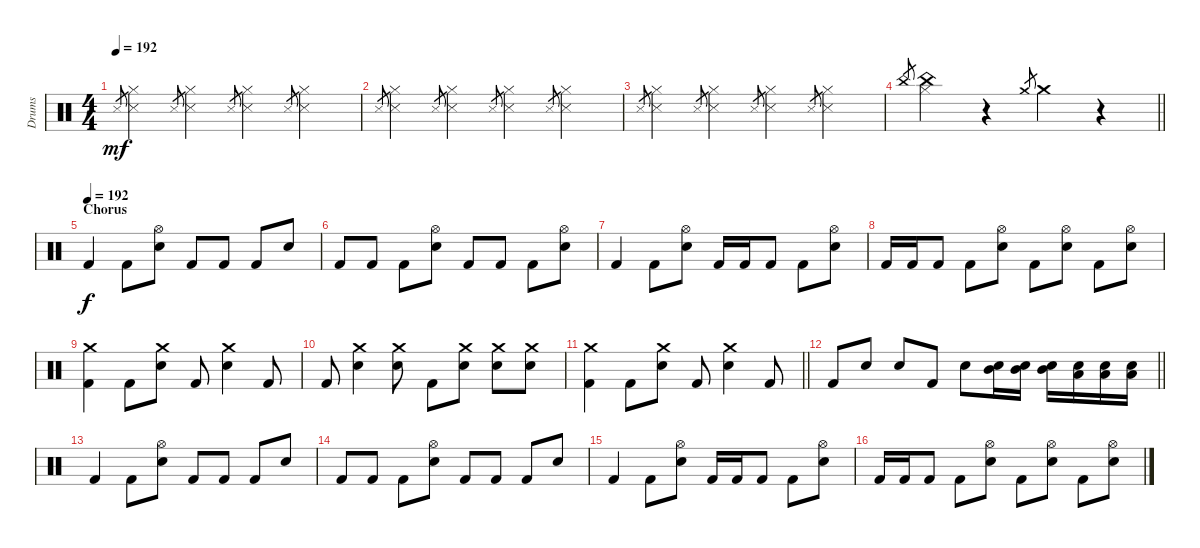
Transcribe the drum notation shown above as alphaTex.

\track ("Drums" "Drums") {instrument percussion}
\staff {score}
\articulation defaults
\ts (4 4)
\tempo 192
\clef neutral
\ks c "Snare (side stick) 3".8{gr dy mf}
("Snare (side stick) 3" "Hi-Hat (closed)").4 "Snare (side stick) 3".8{gr} ("Snare (side stick) 3" "Hi-Hat (closed)").4 "Snare (side stick) 3".8{gr} ("Snare (side stick) 3" "Hi-Hat (closed)").4 "Snare (side stick) 3".8{gr} ("Snare (side stick) 3" "Hi-Hat (closed)").4 |
"Snare (side stick) 3".8{gr} ("Snare (side stick) 3" "Hi-Hat (closed)").4 "Snare (side stick) 3".8{gr} ("Snare (side stick) 3" "Hi-Hat (closed)").4 "Snare (side stick) 3".8{gr} ("Snare (side stick) 3" "Hi-Hat (closed)").4 "Snare (side stick) 3".8{gr} ("Snare (side stick) 3" "Hi-Hat (closed)").4 |
"Snare (side stick) 3".8{gr} ("Snare (side stick) 3" "Hi-Hat (closed)").4 "Snare (side stick) 3".8{gr} ("Snare (side stick) 3" "Hi-Hat (closed)").4 "Snare (side stick) 3".8{gr} ("Snare (side stick) 3" "Hi-Hat (closed)").4 "Snare (side stick) 3".8{gr} ("Snare (side stick) 3" "Hi-Hat (closed)").4 |
\barLineRight lightlight "China (hit)".8{gr}
("China (hit)" "Hi-Hat (closed)").4 r.4 "Crash medium (hit)".8{gr} "Crash medium (hit)".4 r.4 |
\section ("" "Chorus")
\tempo (192)
"Kick (hit) 2".4{dy f} "Kick (hit) 2".8 ("Electric Snare (hit)" "Hi-Hat (open)").8 "Kick (hit) 2".8 "Kick (hit) 2".8 "Kick (hit) 2".8 "Electric Snare (hit)".8 |
"Kick (hit) 2".8 "Kick (hit) 2".8 "Kick (hit) 2".8 ("Electric Snare (hit)" "Hi-Hat (open)").8 "Kick (hit) 2".8 "Kick (hit) 2".8 "Kick (hit) 2".8 ("Electric Snare (hit)" "Hi-Hat (open)").8 |
"Kick (hit) 2".4 "Kick (hit) 2".8 ("Electric Snare (hit)" "Hi-Hat (open)").8 "Kick (hit) 2".16 "Kick (hit) 2".16 "Kick (hit) 2".8 "Kick (hit) 2".8 ("Electric Snare (hit)" "Hi-Hat (open)").8 |
"Kick (hit) 2".16 "Kick (hit) 2".16 "Kick (hit) 2".8 "Kick (hit) 2".8 ("Hi-Hat (open)" "Electric Snare (hit)").8 "Kick (hit) 2".8 ("Hi-Hat (open)" "Electric Snare (hit)").8 "Kick (hit) 2".8 ("Hi-Hat (open)" "Electric Snare (hit)").8 |
("Kick (hit) 2" "Crash medium (hit)").4 "Kick (hit) 2".8 ("Electric Snare (hit)" "Crash medium (hit)").8 "Kick (hit) 2".8 ("Electric Snare (hit)" "Crash medium (hit)").4 "Kick (hit) 2".8 |
"Kick (hit) 2".8 ("Electric Snare (hit)" "Crash medium (hit)").4 ("Electric Snare (hit)" "Crash medium (hit)").8 "Kick (hit) 2".8 ("Electric Snare (hit)" "Crash medium (hit)").8 ("Electric Snare (hit)" "Crash medium (hit)").8 ("Electric Snare (hit)" "Crash medium (hit)").8 |
\barLineRight lightlight
("Kick (hit) 2" "Crash medium (hit)").4 "Kick (hit) 2".8 ("Electric Snare (hit)" "Crash medium (hit)").8 "Kick (hit) 2".8 ("Electric Snare (hit)" "Crash medium (hit)").4 "Kick (hit) 2".8 |
\barLineRight lightlight "Kick (hit) 2".8 "Electric Snare (hit)".8 "Electric Snare (hit)".8 "Kick (hit) 2".8 "Electric Snare (hit)".8
("Electric Snare (hit)" "Mid Tom (hit)").16 ("Electric Snare (hit)" "Mid Tom (hit)").16 ("Electric Snare (hit)" "Mid Tom (hit)").16 ("Electric Snare (hit)" "Low Tom (hit)").16 ("Electric Snare (hit)" "Low Tom (hit)").16 ("Electric Snare (hit)" "Low Tom (hit)").16 |
"Kick (hit) 2".4 "Kick (hit) 2".8 ("Electric Snare (hit)" "Hi-Hat (open)").8 "Kick (hit) 2".8 "Kick (hit) 2".8 "Kick (hit) 2".8 "Electric Snare (hit)".8 |
"Kick (hit) 2".8 "Kick (hit) 2".8 "Kick (hit) 2".8 ("Electric Snare (hit)" "Hi-Hat (open)").8 "Kick (hit) 2".8 "Kick (hit) 2".8 "Kick (hit) 2".8 "Electric Snare (hit)".8 |
"Kick (hit) 2".4 "Kick (hit) 2".8 ("Electric Snare (hit)" "Hi-Hat (open)").8 "Kick (hit) 2".16 "Kick (hit) 2".16 "Kick (hit) 2".8 "Kick (hit) 2".8 ("Electric Snare (hit)" "Hi-Hat (open)").8 |
"Kick (hit) 2".16 "Kick (hit) 2".16 "Kick (hit) 2".8 "Kick (hit) 2".8 ("Hi-Hat (open)" "Electric Snare (hit)").8 "Kick (hit) 2".8 ("Hi-Hat (open)" "Electric Snare (hit)").8 "Kick (hit) 2".8 ("Hi-Hat (open)" "Electric Snare (hit)").8
